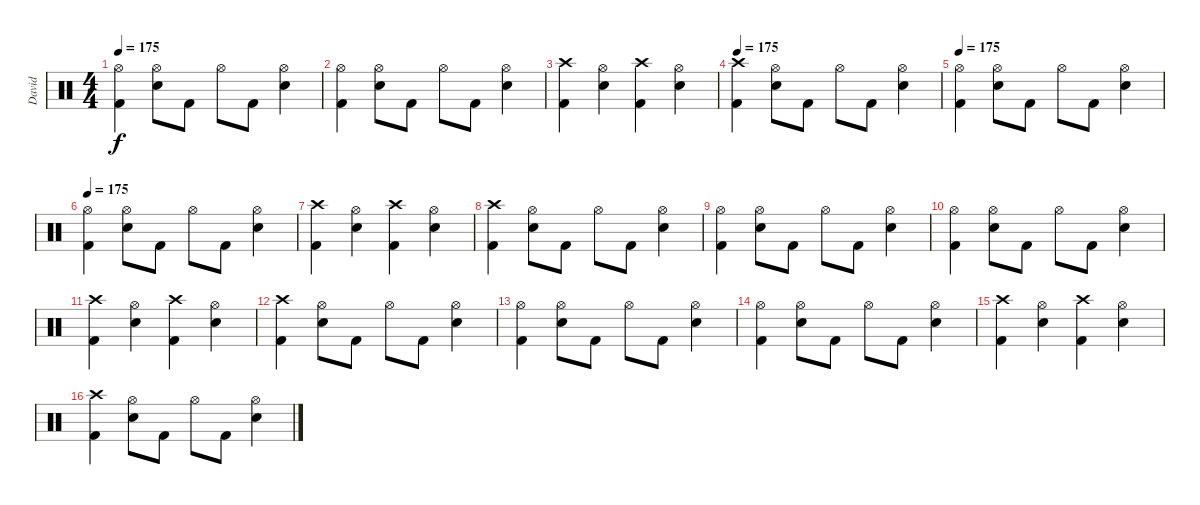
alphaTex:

\track ("David" "David") {instrument percussion}
\staff {score}
\articulation defaults
\ts (4 4)
\tempo 175
\clef neutral
\ks c
("Hi-Hat (open)" "Kick (hit) 2").4{dy f} ("Hi-Hat (open)" "Snare (hit) 2").8 "Kick (hit) 2".8 "Hi-Hat (open)".8 "Kick (hit) 2".8 ("Hi-Hat (open)" "Snare (hit) 2").4 |
("Hi-Hat (open)" "Kick (hit) 2").4 ("Hi-Hat (open)" "Snare (hit) 2").8 "Kick (hit) 2".8 "Hi-Hat (open)".8 "Kick (hit) 2".8 ("Hi-Hat (open)" "Snare (hit) 2").4 |
("Crash high (hit)" "Kick (hit) 2").4 ("Hi-Hat (open)" "Snare (hit) 2").4 ("Crash high (hit)" "Kick (hit) 2").4 ("Hi-Hat (open)" "Snare (hit) 2").4 |
\tempo 175
("Crash high (hit)" "Kick (hit) 2").4 ("Hi-Hat (open)" "Snare (hit) 2").8 "Kick (hit) 2".8 "Hi-Hat (open)".8 "Kick (hit) 2".8 ("Hi-Hat (open)" "Snare (hit) 2").4 |
\tempo 175
("Hi-Hat (open)" "Kick (hit) 2").4 ("Hi-Hat (open)" "Snare (hit) 2").8 "Kick (hit) 2".8 "Hi-Hat (open)".8 "Kick (hit) 2".8 ("Hi-Hat (open)" "Snare (hit) 2").4 |
\tempo 175
("Hi-Hat (open)" "Kick (hit) 2").4 ("Hi-Hat (open)" "Snare (hit) 2").8 "Kick (hit) 2".8 "Hi-Hat (open)".8 "Kick (hit) 2".8 ("Hi-Hat (open)" "Snare (hit) 2").4 |
("Crash high (hit)" "Kick (hit) 2").4 ("Hi-Hat (open)" "Snare (hit) 2").4 ("Crash high (hit)" "Kick (hit) 2").4 ("Hi-Hat (open)" "Snare (hit) 2").4 |
("Crash high (hit)" "Kick (hit) 2").4 ("Hi-Hat (open)" "Snare (hit) 2").8 "Kick (hit) 2".8 "Hi-Hat (open)".8 "Kick (hit) 2".8 ("Hi-Hat (open)" "Snare (hit) 2").4 |
("Hi-Hat (open)" "Kick (hit) 2").4 ("Hi-Hat (open)" "Snare (hit) 2").8 "Kick (hit) 2".8 "Hi-Hat (open)".8 "Kick (hit) 2".8 ("Hi-Hat (open)" "Snare (hit) 2").4 |
("Hi-Hat (open)" "Kick (hit) 2").4 ("Hi-Hat (open)" "Snare (hit) 2").8 "Kick (hit) 2".8 "Hi-Hat (open)".8 "Kick (hit) 2".8 ("Hi-Hat (open)" "Snare (hit) 2").4 |
("Crash high (hit)" "Kick (hit) 2").4 ("Hi-Hat (open)" "Snare (hit) 2").4 ("Crash high (hit)" "Kick (hit) 2").4 ("Hi-Hat (open)" "Snare (hit) 2").4 |
("Crash high (hit)" "Kick (hit) 2").4 ("Hi-Hat (open)" "Snare (hit) 2").8 "Kick (hit) 2".8 "Hi-Hat (open)".8 "Kick (hit) 2".8 ("Hi-Hat (open)" "Snare (hit) 2").4 |
("Hi-Hat (open)" "Kick (hit) 2").4 ("Hi-Hat (open)" "Snare (hit) 2").8 "Kick (hit) 2".8 "Hi-Hat (open)".8 "Kick (hit) 2".8 ("Hi-Hat (open)" "Snare (hit) 2").4 |
("Hi-Hat (open)" "Kick (hit) 2").4 ("Hi-Hat (open)" "Snare (hit) 2").8 "Kick (hit) 2".8 "Hi-Hat (open)".8 "Kick (hit) 2".8 ("Hi-Hat (open)" "Snare (hit) 2").4 |
("Crash high (hit)" "Kick (hit) 2").4 ("Hi-Hat (open)" "Snare (hit) 2").4 ("Crash high (hit)" "Kick (hit) 2").4 ("Hi-Hat (open)" "Snare (hit) 2").4 |
("Crash high (hit)" "Kick (hit) 2").4 ("Hi-Hat (open)" "Snare (hit) 2").8 "Kick (hit) 2".8 "Hi-Hat (open)".8 "Kick (hit) 2".8 ("Hi-Hat (open)" "Snare (hit) 2").4
